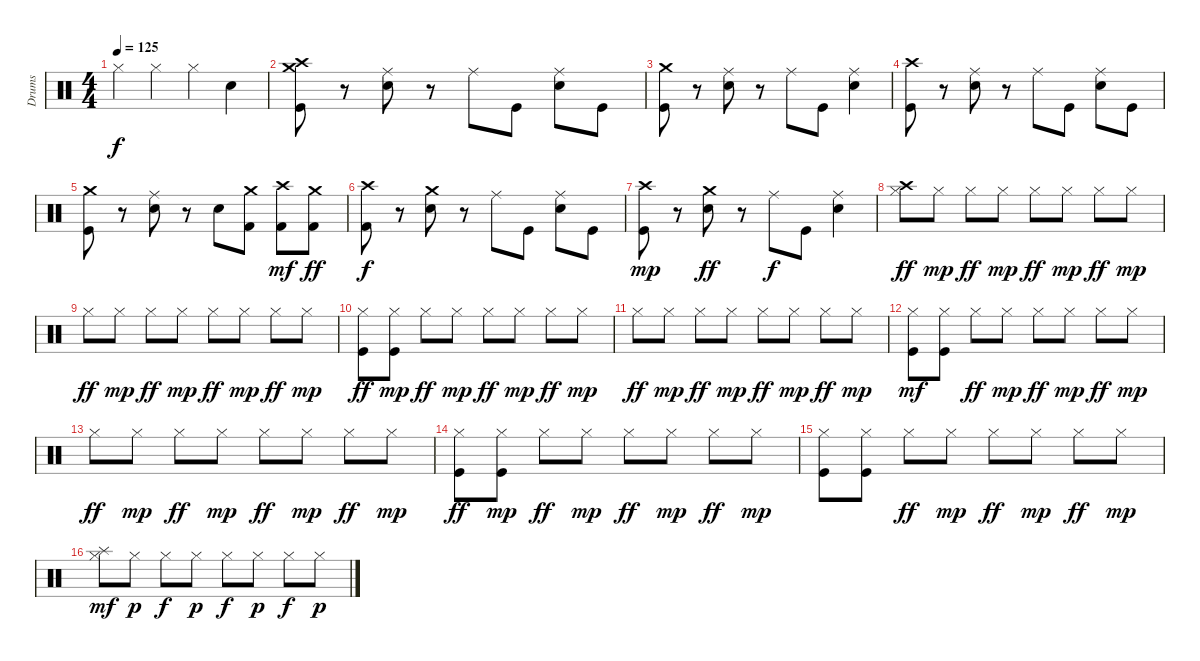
\track ("Drums" "Drums") {instrument percussion}
\staff {score}
\articulation defaults
\ts (4 4)
\tempo 125
\clef neutral
\ks c "Hi-Hat (closed)".4{dy f} "Hi-Hat (closed)".4 "Hi-Hat (closed)".4 "Snare (hit) 2".4
|
("Kick (hit)" "Crash medium (hit)" "Crash high (hit)").8 r.8 ("Snare (hit) 2" "Ride (middle)").8 r.8 "Ride (middle)".8 "Kick (hit)".8 ("Snare (hit) 2" "Ride (middle)").8 "Kick (hit)".8 |
("Kick (hit)" "Crash medium (hit)").8 r.8 ("Snare (hit) 2" "Ride (middle)").8 r.8 "Ride (middle)".8 "Kick (hit)".8 ("Snare (hit) 2" "Ride (middle)").4 |
("Kick (hit)" "Crash high (hit)").8 r.8 ("Snare (hit) 2" "Ride (middle)").8 r.8 "Ride (middle)".8 "Kick (hit)".8 ("Snare (hit) 2" "Ride (middle)").8 "Kick (hit)".8 |
("Kick (hit)" "Crash medium (hit)").8 r.8 ("Snare (hit) 2" "Ride (middle)").8 r.8 "Snare (hit) 2".8 ("Crash medium (hit)" "Kick (hit) 2").8 ("Kick (hit) 2" "Crash high (hit)").8{dy mf} ("Crash medium (hit)" "Kick (hit) 2").8{dy ff} |
("Kick (hit) 2" "Crash high (hit)").8{dy f} r.8 ("Snare (hit) 2" "Crash medium (hit)").8 r.8 "Ride (middle)".8 "Kick (hit)".8 ("Snare (hit) 2" "Ride (middle)").8 "Kick (hit)".8 |
("Kick (hit)" "Crash high (hit)").8{dy mp} r.8 ("Snare (hit) 2" "Crash medium (hit)").8{dy ff} r.8 "Ride (middle)".8{dy f} "Kick (hit)".8 ("Snare (hit) 2" "Ride (middle)").4 |
("Hi-Hat (closed)" "Crash high (hit)").8{dy ff} "Hi-Hat (closed)".8{dy mp} "Hi-Hat (closed)".8{dy ff} "Hi-Hat (closed)".8{dy mp} "Hi-Hat (closed)".8{dy ff} "Hi-Hat (closed)".8{dy mp} "Hi-Hat (closed)".8{dy ff} "Hi-Hat (closed)".8{dy mp} |
"Hi-Hat (closed)".8{dy ff} "Hi-Hat (closed)".8{dy mp} "Hi-Hat (closed)".8{dy ff} "Hi-Hat (closed)".8{dy mp} "Hi-Hat (closed)".8{dy ff} "Hi-Hat (closed)".8{dy mp} "Hi-Hat (closed)".8{dy ff} "Hi-Hat (closed)".8{dy mp} |
("Hi-Hat (closed)" "Kick (hit)").8{dy ff} ("Hi-Hat (closed)" "Kick (hit)").8{dy mp} "Hi-Hat (closed)".8{dy ff} "Hi-Hat (closed)".8{dy mp} "Hi-Hat (closed)".8{dy ff} "Hi-Hat (closed)".8{dy mp} "Hi-Hat (closed)".8{dy ff} "Hi-Hat (closed)".8{dy mp} |
"Hi-Hat (closed)".8{dy ff} "Hi-Hat (closed)".8{dy mp} "Hi-Hat (closed)".8{dy ff} "Hi-Hat (closed)".8{dy mp} "Hi-Hat (closed)".8{dy ff} "Hi-Hat (closed)".8{dy mp} "Hi-Hat (closed)".8{dy ff} "Hi-Hat (closed)".8{dy mp} |
("Hi-Hat (closed)" "Kick (hit)").8{dy mf} ("Hi-Hat (closed)" "Kick (hit)").8 "Hi-Hat (closed)".8{dy ff} "Hi-Hat (closed)".8{dy mp} "Hi-Hat (closed)".8{dy ff} "Hi-Hat (closed)".8{dy mp} "Hi-Hat (closed)".8{dy ff} "Hi-Hat (closed)".8{dy mp} |
"Hi-Hat (closed)".8{dy ff} "Hi-Hat (closed)".8{dy mp} "Hi-Hat (closed)".8{dy ff} "Hi-Hat (closed)".8{dy mp} "Hi-Hat (closed)".8{dy ff} "Hi-Hat (closed)".8{dy mp} "Hi-Hat (closed)".8{dy ff} "Hi-Hat (closed)".8{dy mp} |
("Hi-Hat (closed)" "Kick (hit)").8{dy ff} ("Hi-Hat (closed)" "Kick (hit)").8{dy mp} "Hi-Hat (closed)".8{dy ff} "Hi-Hat (closed)".8{dy mp} "Hi-Hat (closed)".8{dy ff} "Hi-Hat (closed)".8{dy mp} "Hi-Hat (closed)".8{dy ff} "Hi-Hat (closed)".8{dy mp} |
("Hi-Hat (closed)" "Kick (hit)").8 ("Hi-Hat (closed)" "Kick (hit)").8 "Hi-Hat (closed)".8{dy ff} "Hi-Hat (closed)".8{dy mp} "Hi-Hat (closed)".8{dy ff} "Hi-Hat (closed)".8{dy mp} "Hi-Hat (closed)".8{dy ff} "Hi-Hat (closed)".8{dy mp} |
("Hi-Hat (closed)" "Splash (hit)").8{dy mf} "Hi-Hat (closed)".8{dy p} "Hi-Hat (closed)".8{dy f} "Hi-Hat (closed)".8{dy p} "Hi-Hat (closed)".8{dy f} "Hi-Hat (closed)".8{dy p} "Hi-Hat (closed)".8{dy f} "Hi-Hat (closed)".8{dy p}
